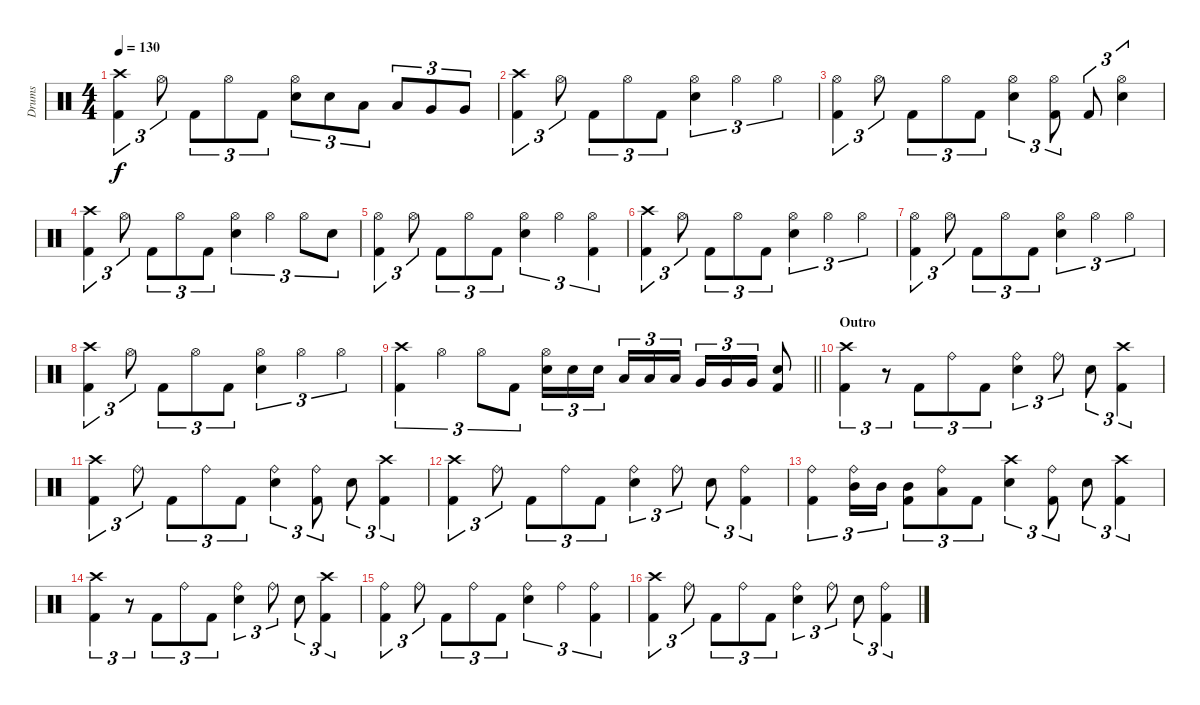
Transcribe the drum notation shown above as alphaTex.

\track ("Drums" "Drums") {instrument percussion}
\staff {score}
\articulation defaults
\ts (4 4)
\tempo 130
\clef neutral
\ks c
("Crash high (hit)" "Kick (hit) 2").4{tu (3 2) dy f} "Hi-Hat (open)".8{tu (3 2)} "Kick (hit) 2".8{tu (3 2)} "Hi-Hat (open)".8{tu (3 2)} "Kick (hit) 2".8{tu (3 2)} ("Hi-Hat (open)" "Electric Snare (hit)").8{tu (3 2)} "Electric Snare (hit)".8{tu (3 2)} "Low Tom (hit)".8{tu (3 2)} "Low Tom (hit)".8{tu (3 2)} "Very Low Tom (hit)".8{tu (3 2)} "Very Low Tom (hit)".8{tu (3 2)} |
("Crash high (hit)" "Kick (hit) 2").4{tu (3 2)} "Hi-Hat (open)".8{tu (3 2)} "Kick (hit) 2".8{tu (3 2)} "Hi-Hat (open)".8{tu (3 2)} "Kick (hit) 2".8{tu (3 2)} ("Hi-Hat (open)" "Electric Snare (hit)").4{tu (3 2)} "Hi-Hat (open)".4{tu (3 2)} "Hi-Hat (open)".4{tu (3 2)} |
("Hi-Hat (open)" "Kick (hit) 2").4{tu (3 2)} "Hi-Hat (open)".8{tu (3 2)} "Kick (hit) 2".8{tu (3 2)} "Hi-Hat (open)".8{tu (3 2)} "Kick (hit) 2".8{tu (3 2)} ("Hi-Hat (open)" "Electric Snare (hit)").4{tu (3 2)} ("Hi-Hat (open)" "Kick (hit) 2").8{tu (3 2)} "Kick (hit) 2".8{tu (3 2)} ("Hi-Hat (open)" "Electric Snare (hit)").4{tu (3 2)} |
("Crash high (hit)" "Kick (hit) 2").4{tu (3 2)} "Hi-Hat (open)".8{tu (3 2)} "Kick (hit) 2".8{tu (3 2)} "Hi-Hat (open)".8{tu (3 2)} "Kick (hit) 2".8{tu (3 2)} ("Hi-Hat (open)" "Electric Snare (hit)").4{tu (3 2)} "Hi-Hat (open)".4{tu (3 2)} "Hi-Hat (open)".8{tu (3 2)} "Electric Snare (hit)".8{tu (3 2)} |
("Hi-Hat (open)" "Kick (hit) 2").4{tu (3 2)} "Hi-Hat (open)".8{tu (3 2)} "Kick (hit) 2".8{tu (3 2)} "Hi-Hat (open)".8{tu (3 2)} "Kick (hit) 2".8{tu (3 2)} ("Hi-Hat (open)" "Electric Snare (hit)").4{tu (3 2)} "Hi-Hat (open)".4{tu (3 2)} ("Hi-Hat (open)" "Kick (hit) 2").4{tu (3 2)} |
("Crash high (hit)" "Kick (hit) 2").4{tu (3 2)} "Hi-Hat (open)".8{tu (3 2)} "Kick (hit) 2".8{tu (3 2)} "Hi-Hat (open)".8{tu (3 2)} "Kick (hit) 2".8{tu (3 2)} ("Hi-Hat (open)" "Electric Snare (hit)").4{tu (3 2)} "Hi-Hat (open)".4{tu (3 2)} "Hi-Hat (open)".4{tu (3 2)} |
("Hi-Hat (open)" "Kick (hit) 2").4{tu (3 2)} "Hi-Hat (open)".8{tu (3 2)} "Kick (hit) 2".8{tu (3 2)} "Hi-Hat (open)".8{tu (3 2)} "Kick (hit) 2".8{tu (3 2)} ("Hi-Hat (open)" "Electric Snare (hit)").4{tu (3 2)} "Hi-Hat (open)".4{tu (3 2)} "Hi-Hat (open)".4{tu (3 2)} |
("Crash high (hit)" "Kick (hit) 2").4{tu (3 2)} "Hi-Hat (open)".8{tu (3 2)} "Kick (hit) 2".8{tu (3 2)} "Hi-Hat (open)".8{tu (3 2)} "Kick (hit) 2".8{tu (3 2)} ("Hi-Hat (open)" "Electric Snare (hit)").4{tu (3 2)} "Hi-Hat (open)".4{tu (3 2)} "Hi-Hat (open)".4{tu (3 2)} |
\barLineRight lightlight
("Crash high (hit)" "Kick (hit) 2").4{tu (3 2)} "Hi-Hat (open)".4{tu (3 2)} "Hi-Hat (open)".8{tu (3 2)} "Kick (hit) 2".8{tu (3 2)} ("Hi-Hat (open)" "Electric Snare (hit)").16{tu (3 2)} "Electric Snare (hit)".16{tu (3 2)} "Electric Snare (hit)".16{tu (3 2) beam splitsecondary} "Low Tom (hit)".16{tu (3 2)} "Low Tom (hit)".16{tu (3 2)} "Low Tom (hit)".16{tu (3 2)} "Very Low Tom (hit)".16{tu (3 2)} "Very Low Tom (hit)".16{tu (3 2)} "Very Low Tom (hit)".16{tu (3 2)} ("Electric Snare (hit)" "Kick (hit) 2").8 |
\section ("" "Outro")
("Crash high (hit)" "Kick (hit) 2").4{tu (3 2)} r.8{tu (3 2)} "Kick (hit) 2".8{tu (3 2)} "Ride (bell)".8{tu (3 2)} "Kick (hit) 2".8{tu (3 2)} ("Ride (bell)" "Electric Snare (hit)").4{tu (3 2)} "Ride (bell)".8{tu (3 2)} "Electric Snare (hit)".8{tu (3 2)} ("Crash high (hit)" "Kick (hit) 2").4{tu (3 2)} |
("Crash high (hit)" "Kick (hit) 2").4{tu (3 2)} "Ride (bell)".8{tu (3 2)} "Kick (hit) 2".8{tu (3 2)} "Ride (bell)".8{tu (3 2)} "Kick (hit) 2".8{tu (3 2)} ("Ride (bell)" "Electric Snare (hit)").4{tu (3 2)} ("Ride (bell)" "Kick (hit) 2").8{tu (3 2)} "Electric Snare (hit)".8{tu (3 2)} ("Crash high (hit)" "Kick (hit) 2").4{tu (3 2)} |
("Crash high (hit)" "Kick (hit) 2").4{tu (3 2)} "Ride (bell)".8{tu (3 2)} "Kick (hit) 2".8{tu (3 2)} "Ride (bell)".8{tu (3 2)} "Kick (hit) 2".8{tu (3 2)} ("Ride (bell)" "Electric Snare (hit)").4{tu (3 2)} "Ride (bell)".8{tu (3 2)} "Electric Snare (hit)".8{tu (3 2)} ("Ride (bell)" "Kick (hit) 2").4{tu (3 2)} |
("Ride (bell)" "Kick (hit) 2").4{tu (3 2)} ("Ride (bell)" "Mid Tom (hit)").16{tu (3 2)} "Mid Tom (hit)".16{tu (3 2)} ("Mid Tom (hit)" "Kick (hit) 2").8{tu (3 2)} ("Ride (bell)" "Low Tom (hit)").8{tu (3 2)} "Kick (hit) 2".8{tu (3 2)} ("Crash high (hit)" "Electric Snare (hit)").4{tu (3 2)} ("Ride (bell)" "Kick (hit) 2").8{tu (3 2)} "Electric Snare (hit)".8{tu (3 2)} ("Crash high (hit)" "Kick (hit) 2").4{tu (3 2)} |
("Crash high (hit)" "Kick (hit) 2").4{tu (3 2)} r.8{tu (3 2)} "Kick (hit) 2".8{tu (3 2)} "Ride (bell)".8{tu (3 2)} "Kick (hit) 2".8{tu (3 2)} ("Ride (bell)" "Electric Snare (hit)").4{tu (3 2)} "Ride (bell)".8{tu (3 2)} "Electric Snare (hit)".8{tu (3 2)} ("Crash high (hit)" "Kick (hit) 2").4{tu (3 2)} |
("Ride (bell)" "Kick (hit) 2").4{tu (3 2)} "Ride (bell)".8{tu (3 2)} "Kick (hit) 2".8{tu (3 2)} "Ride (bell)".8{tu (3 2)} "Kick (hit) 2".8{tu (3 2)} ("Ride (bell)" "Electric Snare (hit)").4{tu (3 2)} "Ride (bell)".4{tu (3 2)} ("Ride (bell)" "Kick (hit) 2").4{tu (3 2)} |
("Crash high (hit)" "Kick (hit) 2").4{tu (3 2)} "Ride (bell)".8{tu (3 2)} "Kick (hit) 2".8{tu (3 2)} "Ride (bell)".8{tu (3 2)} "Kick (hit) 2".8{tu (3 2)} ("Ride (bell)" "Electric Snare (hit)").4{tu (3 2)} "Ride (bell)".8{tu (3 2)} "Electric Snare (hit)".8{tu (3 2)} ("Ride (bell)" "Kick (hit) 2").4{tu (3 2)}
